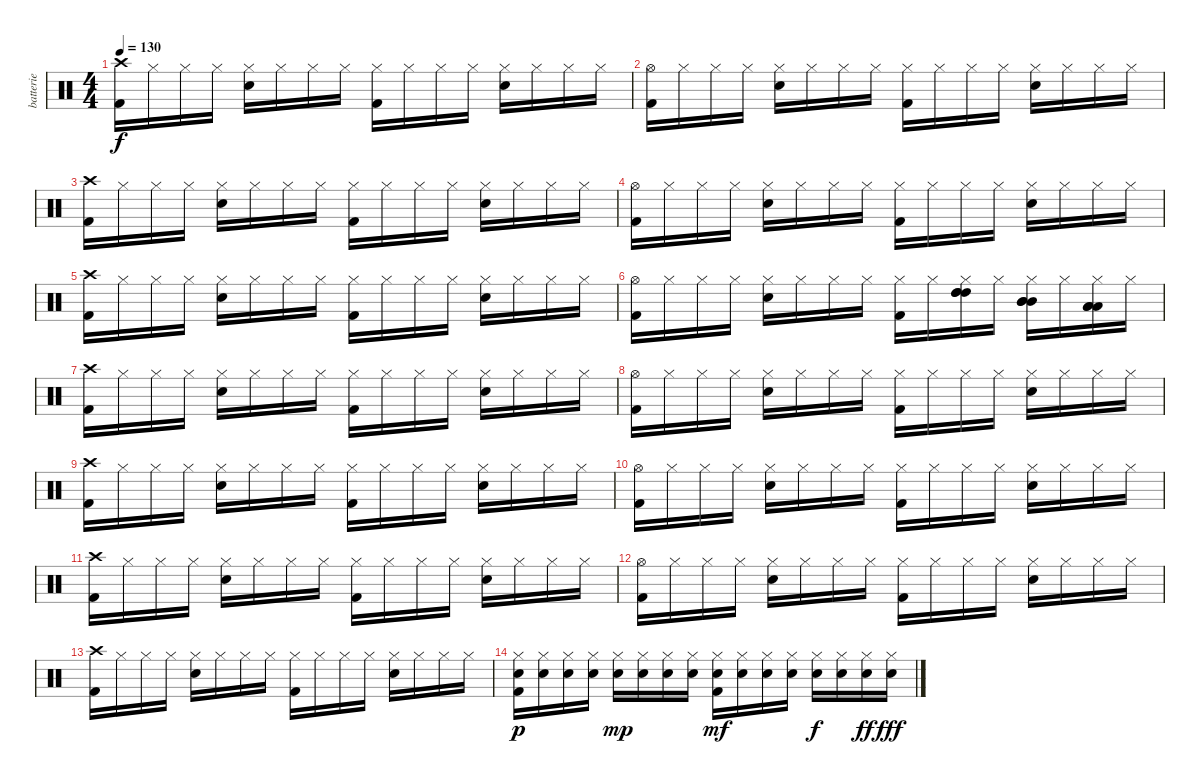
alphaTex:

\track ("batterie" "batterie") {instrument percussion}
\staff {score}
\articulation defaults
\ts (4 4)
\tempo 130
\clef neutral
\ks c
("Crash high (hit)" "Kick (hit) 2").16{dy f} "Hi-Hat (closed)".16 "Hi-Hat (closed)".16 "Hi-Hat (closed)".16 ("Hi-Hat (closed)" "Electric Snare (hit)").16 "Hi-Hat (closed)".16 "Hi-Hat (closed)".16 "Hi-Hat (closed)".16 ("Hi-Hat (closed)" "Kick (hit) 2").16 "Hi-Hat (closed)".16 "Hi-Hat (closed)".16 "Hi-Hat (closed)".16 ("Hi-Hat (closed)" "Electric Snare (hit)").16 "Hi-Hat (closed)".16 "Hi-Hat (closed)".16 "Hi-Hat (closed)".16 |
("Hi-Hat (open)" "Kick (hit) 2").16 "Hi-Hat (closed)".16 "Hi-Hat (closed)".16 "Hi-Hat (closed)".16 ("Hi-Hat (closed)" "Electric Snare (hit)").16 "Hi-Hat (closed)".16 "Hi-Hat (closed)".16 "Hi-Hat (closed)".16 ("Hi-Hat (closed)" "Kick (hit) 2").16 "Hi-Hat (closed)".16 "Hi-Hat (closed)".16 "Hi-Hat (closed)".16 ("Hi-Hat (closed)" "Electric Snare (hit)").16 "Hi-Hat (closed)".16 "Hi-Hat (closed)".16 "Hi-Hat (closed)".16 |
("Crash high (hit)" "Kick (hit) 2").16 "Hi-Hat (closed)".16 "Hi-Hat (closed)".16 "Hi-Hat (closed)".16 ("Hi-Hat (closed)" "Electric Snare (hit)").16 "Hi-Hat (closed)".16 "Hi-Hat (closed)".16 "Hi-Hat (closed)".16 ("Hi-Hat (closed)" "Kick (hit) 2").16 "Hi-Hat (closed)".16 "Hi-Hat (closed)".16 "Hi-Hat (closed)".16 ("Hi-Hat (closed)" "Electric Snare (hit)").16 "Hi-Hat (closed)".16 "Hi-Hat (closed)".16 "Hi-Hat (closed)".16 |
("Hi-Hat (open)" "Kick (hit) 2").16 "Hi-Hat (closed)".16 "Hi-Hat (closed)".16 "Hi-Hat (closed)".16 ("Hi-Hat (closed)" "Electric Snare (hit)").16 "Hi-Hat (closed)".16 "Hi-Hat (closed)".16 "Hi-Hat (closed)".16 ("Hi-Hat (closed)" "Kick (hit) 2").16 "Hi-Hat (closed)".16 "Hi-Hat (closed)".16 "Hi-Hat (closed)".16 ("Hi-Hat (closed)" "Electric Snare (hit)").16 "Hi-Hat (closed)".16 "Hi-Hat (closed)".16 "Hi-Hat (closed)".16 |
("Crash high (hit)" "Kick (hit) 2").16 "Hi-Hat (closed)".16 "Hi-Hat (closed)".16 "Hi-Hat (closed)".16 ("Hi-Hat (closed)" "Electric Snare (hit)").16 "Hi-Hat (closed)".16 "Hi-Hat (closed)".16 "Hi-Hat (closed)".16 ("Hi-Hat (closed)" "Kick (hit) 2").16 "Hi-Hat (closed)".16 "Hi-Hat (closed)".16 "Hi-Hat (closed)".16 ("Hi-Hat (closed)" "Electric Snare (hit)").16 "Hi-Hat (closed)".16 "Hi-Hat (closed)".16 "Hi-Hat (closed)".16 |
("Hi-Hat (open)" "Kick (hit) 2").16 "Hi-Hat (closed)".16 "Hi-Hat (closed)".16 "Hi-Hat (closed)".16 ("Hi-Hat (closed)" "Electric Snare (hit)").16 "Hi-Hat (closed)".16 "Hi-Hat (closed)".16 "Hi-Hat (closed)".16 ("Hi-Hat (closed)" "Kick (hit) 2").16 "Hi-Hat (closed)".16 ("High Tom (hit)" "High Tom (hit)" "Hi-Hat (closed)" "High Tom (hit)").16 "Hi-Hat (closed)".16 ("Mid Tom (hit)" "Mid Tom (hit)" "Hi-Hat (closed)" "Mid Tom (hit)").16 "Hi-Hat (closed)".16 ("Low Tom (hit)" "Low Tom (hit)" "Hi-Hat (closed)" "Low Tom (hit)").16 "Hi-Hat (closed)".16 |
("Crash high (hit)" "Kick (hit) 2").16 "Hi-Hat (closed)".16 "Hi-Hat (closed)".16 "Hi-Hat (closed)".16 ("Hi-Hat (closed)" "Electric Snare (hit)").16 "Hi-Hat (closed)".16 "Hi-Hat (closed)".16 "Hi-Hat (closed)".16 ("Hi-Hat (closed)" "Kick (hit) 2").16 "Hi-Hat (closed)".16 "Hi-Hat (closed)".16 "Hi-Hat (closed)".16 ("Hi-Hat (closed)" "Electric Snare (hit)").16 "Hi-Hat (closed)".16 "Hi-Hat (closed)".16 "Hi-Hat (closed)".16 |
("Hi-Hat (open)" "Kick (hit) 2").16 "Hi-Hat (closed)".16 "Hi-Hat (closed)".16 "Hi-Hat (closed)".16 ("Hi-Hat (closed)" "Electric Snare (hit)").16 "Hi-Hat (closed)".16 "Hi-Hat (closed)".16 "Hi-Hat (closed)".16 ("Hi-Hat (closed)" "Kick (hit) 2").16 "Hi-Hat (closed)".16 "Hi-Hat (closed)".16 "Hi-Hat (closed)".16 ("Hi-Hat (closed)" "Electric Snare (hit)").16 "Hi-Hat (closed)".16 "Hi-Hat (closed)".16 "Hi-Hat (closed)".16 |
("Crash high (hit)" "Kick (hit) 2").16 "Hi-Hat (closed)".16 "Hi-Hat (closed)".16 "Hi-Hat (closed)".16 ("Hi-Hat (closed)" "Electric Snare (hit)").16 "Hi-Hat (closed)".16 "Hi-Hat (closed)".16 "Hi-Hat (closed)".16 ("Hi-Hat (closed)" "Kick (hit) 2").16 "Hi-Hat (closed)".16 "Hi-Hat (closed)".16 "Hi-Hat (closed)".16 ("Hi-Hat (closed)" "Electric Snare (hit)").16 "Hi-Hat (closed)".16 "Hi-Hat (closed)".16 "Hi-Hat (closed)".16 |
("Hi-Hat (open)" "Kick (hit) 2").16 "Hi-Hat (closed)".16 "Hi-Hat (closed)".16 "Hi-Hat (closed)".16 ("Hi-Hat (closed)" "Electric Snare (hit)").16 "Hi-Hat (closed)".16 "Hi-Hat (closed)".16 "Hi-Hat (closed)".16 ("Hi-Hat (closed)" "Kick (hit) 2").16 "Hi-Hat (closed)".16 "Hi-Hat (closed)".16 "Hi-Hat (closed)".16 ("Hi-Hat (closed)" "Electric Snare (hit)").16 "Hi-Hat (closed)".16 "Hi-Hat (closed)".16 "Hi-Hat (closed)".16 |
("Crash high (hit)" "Kick (hit) 2").16 "Hi-Hat (closed)".16 "Hi-Hat (closed)".16 "Hi-Hat (closed)".16 ("Hi-Hat (closed)" "Electric Snare (hit)").16 "Hi-Hat (closed)".16 "Hi-Hat (closed)".16 "Hi-Hat (closed)".16 ("Hi-Hat (closed)" "Kick (hit) 2").16 "Hi-Hat (closed)".16 "Hi-Hat (closed)".16 "Hi-Hat (closed)".16 ("Hi-Hat (closed)" "Electric Snare (hit)").16 "Hi-Hat (closed)".16 "Hi-Hat (closed)".16 "Hi-Hat (closed)".16 |
("Hi-Hat (open)" "Kick (hit) 2").16 "Hi-Hat (closed)".16 "Hi-Hat (closed)".16 "Hi-Hat (closed)".16 ("Hi-Hat (closed)" "Electric Snare (hit)").16 "Hi-Hat (closed)".16 "Hi-Hat (closed)".16 "Hi-Hat (closed)".16 ("Hi-Hat (closed)" "Kick (hit) 2").16 "Hi-Hat (closed)".16 "Hi-Hat (closed)".16 "Hi-Hat (closed)".16 ("Hi-Hat (closed)" "Electric Snare (hit)").16 "Hi-Hat (closed)".16 "Hi-Hat (closed)".16 "Hi-Hat (closed)".16 |
("Crash high (hit)" "Kick (hit) 2").16 "Hi-Hat (closed)".16 "Hi-Hat (closed)".16 "Hi-Hat (closed)".16 ("Hi-Hat (closed)" "Electric Snare (hit)").16 "Hi-Hat (closed)".16 "Hi-Hat (closed)".16 "Hi-Hat (closed)".16 ("Hi-Hat (closed)" "Kick (hit) 2").16 "Hi-Hat (closed)".16 "Hi-Hat (closed)".16 "Hi-Hat (closed)".16 ("Hi-Hat (closed)" "Electric Snare (hit)").16 "Hi-Hat (closed)".16 "Hi-Hat (closed)".16 "Hi-Hat (closed)".16 |
("Electric Snare (hit)" "Hi-Hat (closed)" "Kick (hit) 2").16{dy p} ("Electric Snare (hit)" "Hi-Hat (closed)").16 ("Electric Snare (hit)" "Hi-Hat (closed)").16 ("Electric Snare (hit)" "Hi-Hat (closed)").16 ("Electric Snare (hit)" "Hi-Hat (closed)").16{dy mp} ("Electric Snare (hit)" "Hi-Hat (closed)").16 ("Electric Snare (hit)" "Hi-Hat (closed)").16 ("Electric Snare (hit)" "Hi-Hat (closed)").16 ("Electric Snare (hit)" "Hi-Hat (closed)" "Kick (hit) 2").16{dy mf} ("Electric Snare (hit)" "Hi-Hat (closed)").16 ("Electric Snare (hit)" "Hi-Hat (closed)").16 ("Electric Snare (hit)" "Hi-Hat (closed)").16 ("Electric Snare (hit)" "Hi-Hat (closed)").16{dy f} ("Electric Snare (hit)" "Hi-Hat (closed)").16 ("Electric Snare (hit)" "Hi-Hat (closed)").16{dy ff} ("Electric Snare (hit)" "Hi-Hat (closed)").16{dy fff}
